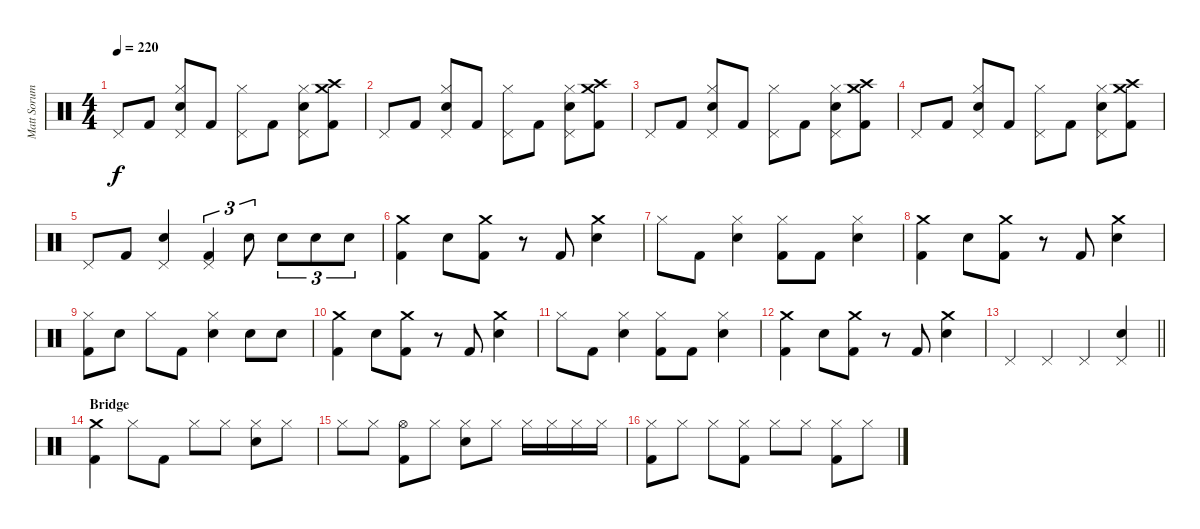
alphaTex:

\track ("Matt Sorum - Drums" "Matt Sorum") {instrument percussion}
\staff {score}
\articulation defaults
\ts (4 4)
\tempo 220
\clef neutral
\ks c "Pedal Hi-Hat (hit)".8{dy f} "Kick (hit) 2".8
("Hi-Hat (closed)" "Pedal Hi-Hat (hit)" "Snare (hit) 2").8 "Kick (hit) 2".8 ("Hi-Hat (closed)" "Pedal Hi-Hat (hit)").8 "Kick (hit) 2".8 ("Hi-Hat (closed)" "Pedal Hi-Hat (hit)" "Snare (hit) 2").8 ("Crash medium (hit)" "Crash high (hit)" "Kick (hit) 2").8 |
"Pedal Hi-Hat (hit)".8 "Kick (hit) 2".8 ("Hi-Hat (closed)" "Pedal Hi-Hat (hit)" "Snare (hit) 2").8 "Kick (hit) 2".8 ("Hi-Hat (closed)" "Pedal Hi-Hat (hit)").8 "Kick (hit) 2".8 ("Hi-Hat (closed)" "Pedal Hi-Hat (hit)" "Snare (hit) 2").8 ("Crash medium (hit)" "Crash high (hit)" "Kick (hit) 2").8 |
"Pedal Hi-Hat (hit)".8 "Kick (hit) 2".8 ("Hi-Hat (closed)" "Pedal Hi-Hat (hit)" "Snare (hit) 2").8 "Kick (hit) 2".8 ("Hi-Hat (closed)" "Pedal Hi-Hat (hit)").8 "Kick (hit) 2".8 ("Hi-Hat (closed)" "Pedal Hi-Hat (hit)" "Snare (hit) 2").8 ("Crash medium (hit)" "Crash high (hit)" "Kick (hit) 2").8 |
"Pedal Hi-Hat (hit)".8 "Kick (hit) 2".8 ("Hi-Hat (closed)" "Pedal Hi-Hat (hit)" "Snare (hit) 2").8 "Kick (hit) 2".8 ("Hi-Hat (closed)" "Pedal Hi-Hat (hit)").8 "Kick (hit) 2".8 ("Hi-Hat (closed)" "Pedal Hi-Hat (hit)" "Snare (hit) 2").8 ("Crash medium (hit)" "Crash high (hit)" "Kick (hit) 2").8 |
"Pedal Hi-Hat (hit)".8 "Kick (hit) 2".8 ("Pedal Hi-Hat (hit)" "Snare (hit) 2").4 ("Pedal Hi-Hat (hit)" "Kick (hit) 2").4{tu (3 2)} "Snare (hit) 2".8{tu (3 2)} "Snare (hit) 2".8{tu (3 2)} "Snare (hit) 2".8{tu (3 2)} "Snare (hit) 2".8{tu (3 2)} |
("Crash medium (hit)" "Kick (hit) 2").4 "Snare (hit) 2".8 ("Crash medium (hit)" "Kick (hit) 2").8 r.8 "Kick (hit) 2".8 ("Crash medium (hit)" "Snare (hit) 2").4 |
"Hi-Hat (closed)".8 "Kick (hit) 2".8 ("Hi-Hat (closed)" "Snare (hit) 2").4 ("Hi-Hat (closed)" "Kick (hit) 2").8 "Kick (hit) 2".8 ("Hi-Hat (closed)" "Snare (hit) 2").4 |
("Crash medium (hit)" "Kick (hit) 2").4 "Snare (hit) 2".8 ("Crash medium (hit)" "Kick (hit) 2").8 r.8 "Kick (hit) 2".8 ("Crash medium (hit)" "Snare (hit) 2").4 |
("Hi-Hat (closed)" "Kick (hit) 2").8 "Snare (hit) 2".8 "Hi-Hat (closed)".8 "Kick (hit) 2".8 ("Hi-Hat (closed)" "Snare (hit) 2").4 "Snare (hit) 2".8 "Snare (hit) 2".8 |
("Crash medium (hit)" "Kick (hit) 2").4 "Snare (hit) 2".8 ("Crash medium (hit)" "Kick (hit) 2").8 r.8 "Kick (hit) 2".8 ("Crash medium (hit)" "Snare (hit) 2").4 |
"Hi-Hat (closed)".8 "Kick (hit) 2".8 ("Hi-Hat (closed)" "Snare (hit) 2").4 ("Hi-Hat (closed)" "Kick (hit) 2").8 "Kick (hit) 2".8 ("Hi-Hat (closed)" "Snare (hit) 2").4 |
("Crash medium (hit)" "Kick (hit) 2").4 "Snare (hit) 2".8 ("Crash medium (hit)" "Kick (hit) 2").8 r.8 "Kick (hit) 2".8 ("Crash medium (hit)" "Snare (hit) 2").4 |
\barLineRight lightlight "Pedal Hi-Hat (hit)".4 "Pedal Hi-Hat (hit)".4 "Pedal Hi-Hat (hit)".4
("Pedal Hi-Hat (hit)" "Snare (hit) 2").4 |
\section ("" "Bridge")
("Crash medium (hit)" "Kick (hit) 2").4 "Hi-Hat (closed)".8 "Kick (hit) 2".8 "Hi-Hat (closed)".8 "Hi-Hat (closed)".8 ("Hi-Hat (closed)" "Snare (hit) 2").8 "Hi-Hat (closed)".8 |
"Hi-Hat (closed)".8 "Hi-Hat (closed)".8 ("Hi-Hat (open)" "Kick (hit) 2").8 "Hi-Hat (closed)".8 ("Hi-Hat (closed)" "Snare (hit) 2").8 "Hi-Hat (closed)".8 "Hi-Hat (closed)".16 "Hi-Hat (closed)".16 "Hi-Hat (closed)".16 "Hi-Hat (closed)".16 |
("Hi-Hat (closed)" "Kick (hit) 2").8 "Hi-Hat (closed)".8 "Hi-Hat (closed)".8 ("Hi-Hat (closed)" "Kick (hit) 2").8 "Hi-Hat (closed)".8 "Hi-Hat (closed)".8 ("Hi-Hat (closed)" "Kick (hit) 2").8 "Hi-Hat (closed)".8
